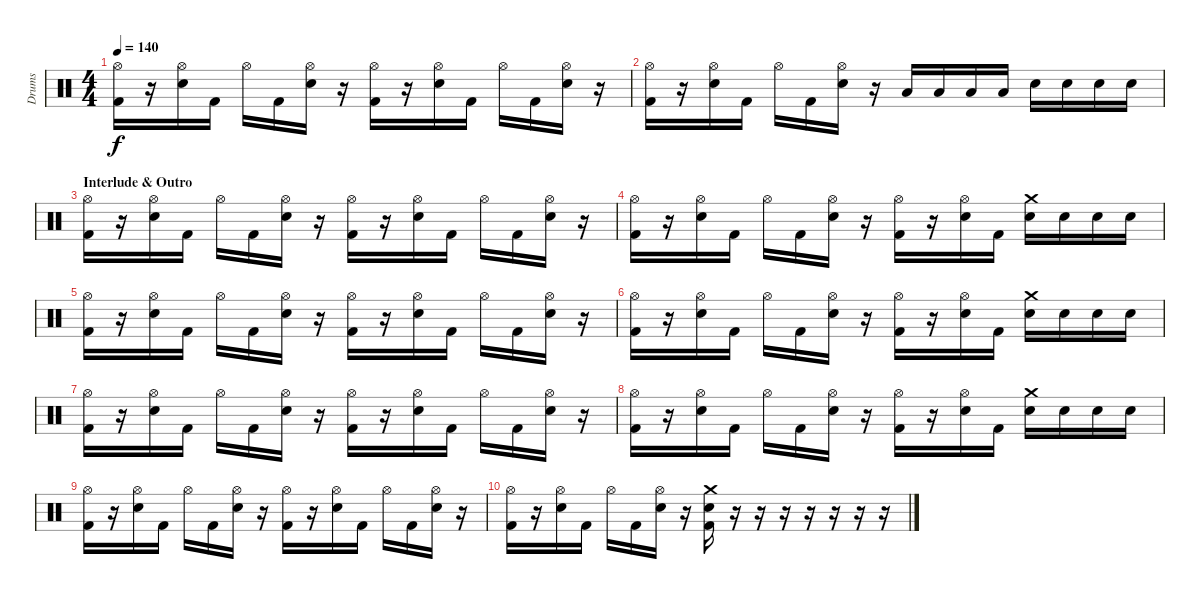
\track ("Drums" "Drums") {instrument percussion}
\staff {score}
\articulation defaults
\ts (4 4)
\tempo 140
\clef neutral
\ks c
("Hi-Hat (open)" "Kick (hit) 2").16{dy f} r.16 ("Hi-Hat (open)" "Electric Snare (hit)").16 "Kick (hit) 2".16 "Hi-Hat (open)".16 "Kick (hit) 2".16 ("Hi-Hat (open)" "Electric Snare (hit)").16 r.16 ("Hi-Hat (open)" "Kick (hit) 2").16 r.16 ("Hi-Hat (open)" "Electric Snare (hit)").16 "Kick (hit) 2".16 "Hi-Hat (open)".16 "Kick (hit) 2".16 ("Hi-Hat (open)" "Electric Snare (hit)").16 r.16 |
("Hi-Hat (open)" "Kick (hit) 2").16 r.16 ("Hi-Hat (open)" "Electric Snare (hit)").16 "Kick (hit) 2".16 "Hi-Hat (open)".16 "Kick (hit) 2".16 ("Hi-Hat (open)" "Electric Snare (hit)").16 r.16 "Low Tom (hit)".16 "Low Tom (hit)".16 "Low Tom (hit)".16 "Low Tom (hit)".16 "Electric Snare (hit)".16 "Electric Snare (hit)".16 "Electric Snare (hit)".16 "Electric Snare (hit)".16 |
\section ("" "Interlude & Outro")
("Hi-Hat (open)" "Kick (hit) 2").16 r.16 ("Hi-Hat (open)" "Electric Snare (hit)").16 "Kick (hit) 2".16 "Hi-Hat (open)".16 "Kick (hit) 2".16 ("Hi-Hat (open)" "Electric Snare (hit)").16 r.16 ("Hi-Hat (open)" "Kick (hit) 2").16 r.16 ("Hi-Hat (open)" "Electric Snare (hit)").16 "Kick (hit) 2".16 "Hi-Hat (open)".16 "Kick (hit) 2".16 ("Hi-Hat (open)" "Electric Snare (hit)").16 r.16 |
("Hi-Hat (open)" "Kick (hit) 2").16 r.16 ("Hi-Hat (open)" "Electric Snare (hit)").16 "Kick (hit) 2".16 "Hi-Hat (open)".16 "Kick (hit) 2".16 ("Hi-Hat (open)" "Electric Snare (hit)").16 r.16 ("Hi-Hat (open)" "Kick (hit) 2").16 r.16 ("Hi-Hat (open)" "Electric Snare (hit)").16 "Kick (hit) 2".16 ("Crash medium (hit)" "Electric Snare (hit)").16 "Electric Snare (hit)".16 "Electric Snare (hit)".16 "Electric Snare (hit)".16 |
("Hi-Hat (open)" "Kick (hit) 2").16 r.16 ("Hi-Hat (open)" "Electric Snare (hit)").16 "Kick (hit) 2".16 "Hi-Hat (open)".16 "Kick (hit) 2".16 ("Hi-Hat (open)" "Electric Snare (hit)").16 r.16 ("Hi-Hat (open)" "Kick (hit) 2").16 r.16 ("Hi-Hat (open)" "Electric Snare (hit)").16 "Kick (hit) 2".16 "Hi-Hat (open)".16 "Kick (hit) 2".16 ("Hi-Hat (open)" "Electric Snare (hit)").16 r.16 |
("Hi-Hat (open)" "Kick (hit) 2").16 r.16 ("Hi-Hat (open)" "Electric Snare (hit)").16 "Kick (hit) 2".16 "Hi-Hat (open)".16 "Kick (hit) 2".16 ("Hi-Hat (open)" "Electric Snare (hit)").16 r.16 ("Hi-Hat (open)" "Kick (hit) 2").16 r.16 ("Hi-Hat (open)" "Electric Snare (hit)").16 "Kick (hit) 2".16 ("Crash medium (hit)" "Electric Snare (hit)").16 "Electric Snare (hit)".16 "Electric Snare (hit)".16 "Electric Snare (hit)".16 |
("Hi-Hat (open)" "Kick (hit) 2").16 r.16 ("Hi-Hat (open)" "Electric Snare (hit)").16 "Kick (hit) 2".16 "Hi-Hat (open)".16 "Kick (hit) 2".16 ("Hi-Hat (open)" "Electric Snare (hit)").16 r.16 ("Hi-Hat (open)" "Kick (hit) 2").16 r.16 ("Hi-Hat (open)" "Electric Snare (hit)").16 "Kick (hit) 2".16 "Hi-Hat (open)".16 "Kick (hit) 2".16 ("Hi-Hat (open)" "Electric Snare (hit)").16 r.16 |
("Hi-Hat (open)" "Kick (hit) 2").16 r.16 ("Hi-Hat (open)" "Electric Snare (hit)").16 "Kick (hit) 2".16 "Hi-Hat (open)".16 "Kick (hit) 2".16 ("Hi-Hat (open)" "Electric Snare (hit)").16 r.16 ("Hi-Hat (open)" "Kick (hit) 2").16 r.16 ("Hi-Hat (open)" "Electric Snare (hit)").16 "Kick (hit) 2".16 ("Crash medium (hit)" "Electric Snare (hit)").16 "Electric Snare (hit)".16 "Electric Snare (hit)".16 "Electric Snare (hit)".16 |
("Hi-Hat (open)" "Kick (hit) 2").16 r.16 ("Hi-Hat (open)" "Electric Snare (hit)").16 "Kick (hit) 2".16 "Hi-Hat (open)".16 "Kick (hit) 2".16 ("Hi-Hat (open)" "Electric Snare (hit)").16 r.16 ("Hi-Hat (open)" "Kick (hit) 2").16 r.16 ("Hi-Hat (open)" "Electric Snare (hit)").16 "Kick (hit) 2".16 "Hi-Hat (open)".16 "Kick (hit) 2".16 ("Hi-Hat (open)" "Electric Snare (hit)").16 r.16 |
("Hi-Hat (open)" "Kick (hit) 2").16 r.16 ("Hi-Hat (open)" "Electric Snare (hit)").16 "Kick (hit) 2".16 "Hi-Hat (open)".16 "Kick (hit) 2".16 ("Hi-Hat (open)" "Electric Snare (hit)").16 r.16 ("Crash medium (hit)" "Kick (hit) 2" "Electric Snare (hit)").16 r.16 r.16 r.16 r.16 r.16 r.16 r.16
